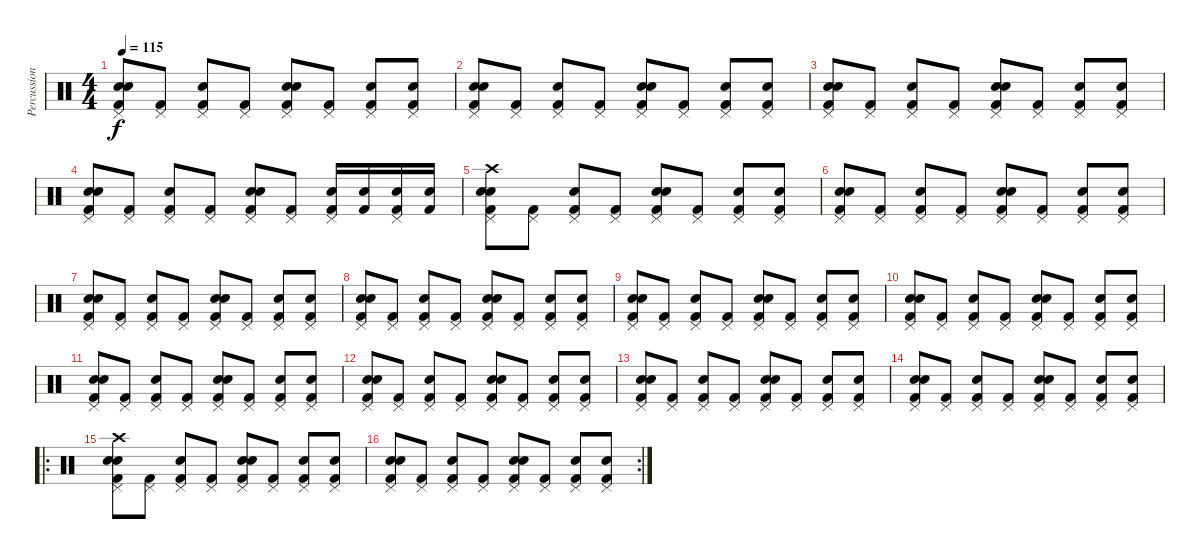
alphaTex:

\track ("Percussions" "Percussion") {instrument percussion}
\staff {score}
\articulation defaults
\ts (4 4)
\tempo 115
\clef neutral
\ks c
("Hand Clap (hit)" "Pedal Hi-Hat (hit)" "Snare (hit) 2" "Kick (hit) 2").8{dy f} ("Pedal Hi-Hat (hit)" "Kick (hit) 2").8 ("Pedal Hi-Hat (hit)" "Snare (hit) 2" "Kick (hit) 2").8 ("Pedal Hi-Hat (hit)" "Kick (hit) 2").8 ("Hand Clap (hit)" "Pedal Hi-Hat (hit)" "Snare (hit) 2" "Kick (hit) 2").8 ("Pedal Hi-Hat (hit)" "Kick (hit) 2").8 ("Pedal Hi-Hat (hit)" "Snare (hit) 2" "Kick (hit) 2").8 ("Pedal Hi-Hat (hit)" "Snare (hit) 2" "Kick (hit) 2").8 |
("Hand Clap (hit)" "Pedal Hi-Hat (hit)" "Snare (hit) 2" "Kick (hit) 2").8 ("Pedal Hi-Hat (hit)" "Kick (hit) 2").8 ("Pedal Hi-Hat (hit)" "Snare (hit) 2" "Kick (hit) 2").8 ("Pedal Hi-Hat (hit)" "Kick (hit) 2").8 ("Hand Clap (hit)" "Pedal Hi-Hat (hit)" "Snare (hit) 2" "Kick (hit) 2").8 ("Pedal Hi-Hat (hit)" "Kick (hit) 2").8 ("Pedal Hi-Hat (hit)" "Snare (hit) 2" "Kick (hit) 2").8 ("Pedal Hi-Hat (hit)" "Snare (hit) 2" "Kick (hit) 2").8 |
("Hand Clap (hit)" "Pedal Hi-Hat (hit)" "Snare (hit) 2" "Kick (hit) 2").8 ("Pedal Hi-Hat (hit)" "Kick (hit) 2").8 ("Pedal Hi-Hat (hit)" "Snare (hit) 2" "Kick (hit) 2").8 ("Pedal Hi-Hat (hit)" "Kick (hit) 2").8 ("Hand Clap (hit)" "Pedal Hi-Hat (hit)" "Snare (hit) 2" "Kick (hit) 2").8 ("Pedal Hi-Hat (hit)" "Kick (hit) 2").8 ("Pedal Hi-Hat (hit)" "Snare (hit) 2" "Kick (hit) 2").8 ("Pedal Hi-Hat (hit)" "Snare (hit) 2" "Kick (hit) 2").8 |
("Hand Clap (hit)" "Pedal Hi-Hat (hit)" "Snare (hit) 2" "Kick (hit) 2").8 ("Pedal Hi-Hat (hit)" "Kick (hit) 2").8 ("Pedal Hi-Hat (hit)" "Snare (hit) 2" "Kick (hit) 2").8 ("Pedal Hi-Hat (hit)" "Kick (hit) 2").8 ("Hand Clap (hit)" "Pedal Hi-Hat (hit)" "Snare (hit) 2" "Kick (hit) 2").8 ("Pedal Hi-Hat (hit)" "Kick (hit) 2").8 ("Pedal Hi-Hat (hit)" "Snare (hit) 2" "Kick (hit) 2").16 ("Snare (hit) 2" "Kick (hit) 2").16 ("Pedal Hi-Hat (hit)" "Snare (hit) 2" "Kick (hit) 2").16 ("Snare (hit) 2" "Kick (hit) 2").16 |
("Crash high (hit)" "Hand Clap (hit)" "Pedal Hi-Hat (hit)" "Snare (hit) 2" "Kick (hit) 2").8 ("Pedal Hi-Hat (hit)" "Kick (hit) 2").8 ("Pedal Hi-Hat (hit)" "Snare (hit) 2" "Kick (hit) 2").8 ("Pedal Hi-Hat (hit)" "Kick (hit) 2").8 ("Hand Clap (hit)" "Pedal Hi-Hat (hit)" "Snare (hit) 2" "Kick (hit) 2").8 ("Pedal Hi-Hat (hit)" "Kick (hit) 2").8 ("Pedal Hi-Hat (hit)" "Snare (hit) 2" "Kick (hit) 2").8 ("Pedal Hi-Hat (hit)" "Snare (hit) 2" "Kick (hit) 2").8 |
("Hand Clap (hit)" "Pedal Hi-Hat (hit)" "Snare (hit) 2" "Kick (hit) 2").8 ("Pedal Hi-Hat (hit)" "Kick (hit) 2").8 ("Pedal Hi-Hat (hit)" "Snare (hit) 2" "Kick (hit) 2").8 ("Pedal Hi-Hat (hit)" "Kick (hit) 2").8 ("Hand Clap (hit)" "Pedal Hi-Hat (hit)" "Snare (hit) 2" "Kick (hit) 2").8 ("Pedal Hi-Hat (hit)" "Kick (hit) 2").8 ("Pedal Hi-Hat (hit)" "Snare (hit) 2" "Kick (hit) 2").8 ("Pedal Hi-Hat (hit)" "Snare (hit) 2" "Kick (hit) 2").8 |
("Hand Clap (hit)" "Pedal Hi-Hat (hit)" "Snare (hit) 2" "Kick (hit) 2").8 ("Pedal Hi-Hat (hit)" "Kick (hit) 2").8 ("Pedal Hi-Hat (hit)" "Snare (hit) 2" "Kick (hit) 2").8 ("Pedal Hi-Hat (hit)" "Kick (hit) 2").8 ("Hand Clap (hit)" "Pedal Hi-Hat (hit)" "Snare (hit) 2" "Kick (hit) 2").8 ("Pedal Hi-Hat (hit)" "Kick (hit) 2").8 ("Pedal Hi-Hat (hit)" "Snare (hit) 2" "Kick (hit) 2").8 ("Pedal Hi-Hat (hit)" "Snare (hit) 2" "Kick (hit) 2").8 |
("Hand Clap (hit)" "Pedal Hi-Hat (hit)" "Snare (hit) 2" "Kick (hit) 2").8 ("Pedal Hi-Hat (hit)" "Kick (hit) 2").8 ("Pedal Hi-Hat (hit)" "Snare (hit) 2" "Kick (hit) 2").8 ("Pedal Hi-Hat (hit)" "Kick (hit) 2").8 ("Hand Clap (hit)" "Pedal Hi-Hat (hit)" "Snare (hit) 2" "Kick (hit) 2").8 ("Pedal Hi-Hat (hit)" "Kick (hit) 2").8 ("Pedal Hi-Hat (hit)" "Snare (hit) 2" "Kick (hit) 2").8 ("Pedal Hi-Hat (hit)" "Snare (hit) 2" "Kick (hit) 2").8 |
("Hand Clap (hit)" "Pedal Hi-Hat (hit)" "Snare (hit) 2" "Kick (hit) 2").8 ("Pedal Hi-Hat (hit)" "Kick (hit) 2").8 ("Pedal Hi-Hat (hit)" "Snare (hit) 2" "Kick (hit) 2").8 ("Pedal Hi-Hat (hit)" "Kick (hit) 2").8 ("Hand Clap (hit)" "Pedal Hi-Hat (hit)" "Snare (hit) 2" "Kick (hit) 2").8 ("Pedal Hi-Hat (hit)" "Kick (hit) 2").8 ("Pedal Hi-Hat (hit)" "Snare (hit) 2" "Kick (hit) 2").8 ("Pedal Hi-Hat (hit)" "Snare (hit) 2" "Kick (hit) 2").8 |
("Hand Clap (hit)" "Pedal Hi-Hat (hit)" "Snare (hit) 2" "Kick (hit) 2").8 ("Pedal Hi-Hat (hit)" "Kick (hit) 2").8 ("Pedal Hi-Hat (hit)" "Snare (hit) 2" "Kick (hit) 2").8 ("Pedal Hi-Hat (hit)" "Kick (hit) 2").8 ("Hand Clap (hit)" "Pedal Hi-Hat (hit)" "Snare (hit) 2" "Kick (hit) 2").8 ("Pedal Hi-Hat (hit)" "Kick (hit) 2").8 ("Pedal Hi-Hat (hit)" "Snare (hit) 2" "Kick (hit) 2").8 ("Pedal Hi-Hat (hit)" "Snare (hit) 2" "Kick (hit) 2").8 |
("Hand Clap (hit)" "Pedal Hi-Hat (hit)" "Snare (hit) 2" "Kick (hit) 2").8 ("Pedal Hi-Hat (hit)" "Kick (hit) 2").8 ("Pedal Hi-Hat (hit)" "Snare (hit) 2" "Kick (hit) 2").8 ("Pedal Hi-Hat (hit)" "Kick (hit) 2").8 ("Hand Clap (hit)" "Pedal Hi-Hat (hit)" "Snare (hit) 2" "Kick (hit) 2").8 ("Pedal Hi-Hat (hit)" "Kick (hit) 2").8 ("Pedal Hi-Hat (hit)" "Snare (hit) 2" "Kick (hit) 2").8 ("Pedal Hi-Hat (hit)" "Snare (hit) 2" "Kick (hit) 2").8 |
("Hand Clap (hit)" "Pedal Hi-Hat (hit)" "Snare (hit) 2" "Kick (hit) 2").8 ("Pedal Hi-Hat (hit)" "Kick (hit) 2").8 ("Pedal Hi-Hat (hit)" "Snare (hit) 2" "Kick (hit) 2").8 ("Pedal Hi-Hat (hit)" "Kick (hit) 2").8 ("Hand Clap (hit)" "Pedal Hi-Hat (hit)" "Snare (hit) 2" "Kick (hit) 2").8 ("Pedal Hi-Hat (hit)" "Kick (hit) 2").8 ("Pedal Hi-Hat (hit)" "Snare (hit) 2" "Kick (hit) 2").8 ("Pedal Hi-Hat (hit)" "Snare (hit) 2" "Kick (hit) 2").8 |
("Hand Clap (hit)" "Pedal Hi-Hat (hit)" "Snare (hit) 2" "Kick (hit) 2").8 ("Pedal Hi-Hat (hit)" "Kick (hit) 2").8 ("Pedal Hi-Hat (hit)" "Snare (hit) 2" "Kick (hit) 2").8 ("Pedal Hi-Hat (hit)" "Kick (hit) 2").8 ("Hand Clap (hit)" "Pedal Hi-Hat (hit)" "Snare (hit) 2" "Kick (hit) 2").8 ("Pedal Hi-Hat (hit)" "Kick (hit) 2").8 ("Pedal Hi-Hat (hit)" "Snare (hit) 2" "Kick (hit) 2").8 ("Pedal Hi-Hat (hit)" "Snare (hit) 2" "Kick (hit) 2").8 |
("Hand Clap (hit)" "Pedal Hi-Hat (hit)" "Snare (hit) 2" "Kick (hit) 2").8 ("Pedal Hi-Hat (hit)" "Kick (hit) 2").8 ("Pedal Hi-Hat (hit)" "Snare (hit) 2" "Kick (hit) 2").8 ("Pedal Hi-Hat (hit)" "Kick (hit) 2").8 ("Hand Clap (hit)" "Pedal Hi-Hat (hit)" "Snare (hit) 2" "Kick (hit) 2").8 ("Pedal Hi-Hat (hit)" "Kick (hit) 2").8 ("Pedal Hi-Hat (hit)" "Snare (hit) 2" "Kick (hit) 2").8 ("Pedal Hi-Hat (hit)" "Snare (hit) 2" "Kick (hit) 2").8 |
\ro
("Crash high (hit)" "Hand Clap (hit)" "Pedal Hi-Hat (hit)" "Snare (hit) 2" "Kick (hit) 2").8 ("Pedal Hi-Hat (hit)" "Kick (hit) 2").8 ("Pedal Hi-Hat (hit)" "Snare (hit) 2" "Kick (hit) 2").8 ("Pedal Hi-Hat (hit)" "Kick (hit) 2").8 ("Hand Clap (hit)" "Pedal Hi-Hat (hit)" "Snare (hit) 2" "Kick (hit) 2").8 ("Pedal Hi-Hat (hit)" "Kick (hit) 2").8 ("Pedal Hi-Hat (hit)" "Snare (hit) 2" "Kick (hit) 2").8 ("Pedal Hi-Hat (hit)" "Snare (hit) 2" "Kick (hit) 2").8 |
\rc 2
("Hand Clap (hit)" "Pedal Hi-Hat (hit)" "Snare (hit) 2" "Kick (hit) 2").8 ("Pedal Hi-Hat (hit)" "Kick (hit) 2").8 ("Pedal Hi-Hat (hit)" "Snare (hit) 2" "Kick (hit) 2").8 ("Pedal Hi-Hat (hit)" "Kick (hit) 2").8 ("Hand Clap (hit)" "Pedal Hi-Hat (hit)" "Snare (hit) 2" "Kick (hit) 2").8 ("Pedal Hi-Hat (hit)" "Kick (hit) 2").8 ("Pedal Hi-Hat (hit)" "Snare (hit) 2" "Kick (hit) 2").8 ("Pedal Hi-Hat (hit)" "Snare (hit) 2" "Kick (hit) 2").8
